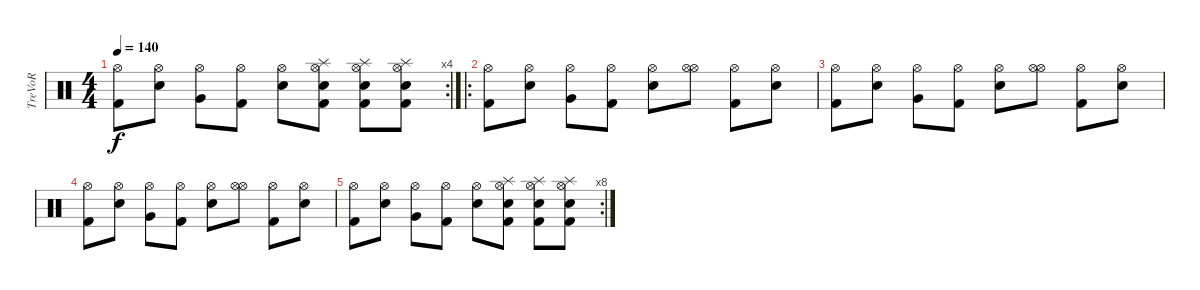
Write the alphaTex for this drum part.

\track ("TreVoR" "TreVoR") {instrument percussion}
\staff {score}
\articulation defaults
\rc 4
\ts (4 4)
\tempo 140
\clef neutral
\ks c
("Hi-Hat (open)" "Kick (hit) 2").8{dy f} ("Hi-Hat (open)" "Snare (hit) 2").8 ("Hi-Hat (open)" "Very Low Tom (hit)").8 ("Hi-Hat (open)" "Kick (hit) 2").8 ("Hi-Hat (open)" "Snare (hit) 2").8 ("Hi-Hat (open)" "Splash (hit)" "Kick (hit) 2" "Electric Snare (hit)").8 ("Hi-Hat (open)" "Splash (hit)" "Kick (hit) 2" "Electric Snare (hit)").8 ("Hi-Hat (open)" "Splash (hit)" "Kick (hit) 2" "Electric Snare (hit)").8 |
\ro
("Hi-Hat (open)" "Kick (hit) 2").8 ("Hi-Hat (open)" "Snare (hit) 2").8 ("Hi-Hat (open)" "Very Low Tom (hit)").8 ("Hi-Hat (open)" "Kick (hit) 2").8 ("Hi-Hat (open)" "Snare (hit) 2").8 ("Hi-Hat (open)" "Hi-Hat (open)").8 ("Hi-Hat (open)" "Kick (hit) 2").8 ("Hi-Hat (open)" "Snare (hit) 2").8 |
("Hi-Hat (open)" "Kick (hit) 2").8 ("Hi-Hat (open)" "Snare (hit) 2").8 ("Hi-Hat (open)" "Very Low Tom (hit)").8 ("Hi-Hat (open)" "Kick (hit) 2").8 ("Hi-Hat (open)" "Snare (hit) 2").8 ("Hi-Hat (open)" "Hi-Hat (open)").8 ("Hi-Hat (open)" "Kick (hit) 2").8 ("Hi-Hat (open)" "Snare (hit) 2").8 |
("Hi-Hat (open)" "Kick (hit) 2").8 ("Hi-Hat (open)" "Snare (hit) 2").8 ("Hi-Hat (open)" "Very Low Tom (hit)").8 ("Hi-Hat (open)" "Kick (hit) 2").8 ("Hi-Hat (open)" "Snare (hit) 2").8 ("Hi-Hat (open)" "Hi-Hat (open)").8 ("Hi-Hat (open)" "Kick (hit) 2").8 ("Hi-Hat (open)" "Snare (hit) 2").8 |
\rc 8
("Hi-Hat (open)" "Kick (hit) 2").8 ("Hi-Hat (open)" "Snare (hit) 2").8 ("Hi-Hat (open)" "Very Low Tom (hit)").8 ("Hi-Hat (open)" "Kick (hit) 2").8 ("Hi-Hat (open)" "Snare (hit) 2").8 ("Hi-Hat (open)" "Splash (hit)" "Kick (hit) 2" "Electric Snare (hit)").8 ("Hi-Hat (open)" "Splash (hit)" "Kick (hit) 2" "Electric Snare (hit)").8 ("Hi-Hat (open)" "Splash (hit)" "Kick (hit) 2" "Electric Snare (hit)").8
